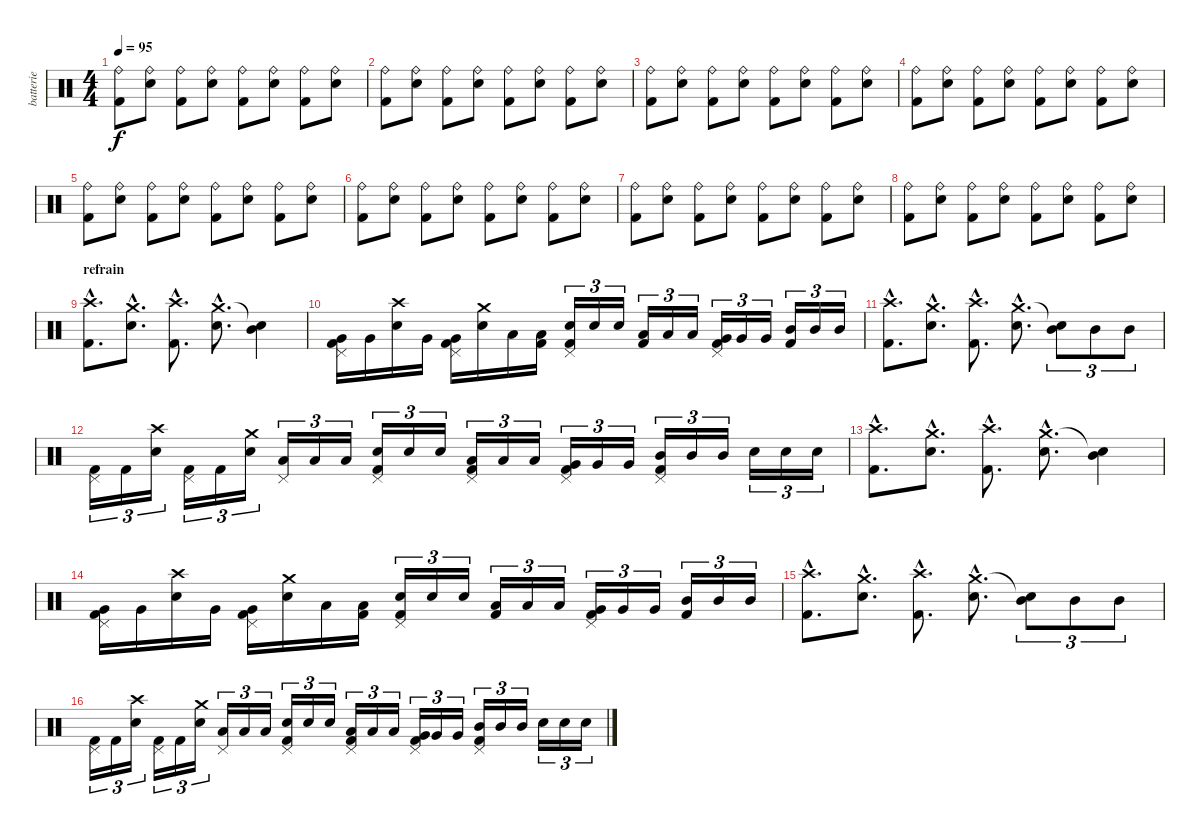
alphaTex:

\track ("batterie" "batterie") {instrument percussion}
\staff {score}
\articulation defaults
\ts (4 4)
\tempo 95
\clef neutral
\ks c
("Kick (hit) 2" "Ride (bell)").8{dy f} ("Electric Snare (hit)" "Ride (bell)").8 ("Kick (hit) 2" "Ride (bell)").8 ("Electric Snare (hit)" "Ride (bell)").8 ("Kick (hit) 2" "Ride (bell)").8 ("Electric Snare (hit)" "Ride (bell)").8 ("Kick (hit) 2" "Ride (bell)").8 ("Electric Snare (hit)" "Ride (bell)").8 |
("Kick (hit) 2" "Ride (bell)").8 ("Electric Snare (hit)" "Ride (bell)").8 ("Kick (hit) 2" "Ride (bell)").8 ("Electric Snare (hit)" "Ride (bell)").8 ("Kick (hit) 2" "Ride (bell)").8 ("Electric Snare (hit)" "Ride (bell)").8 ("Kick (hit) 2" "Ride (bell)").8 ("Electric Snare (hit)" "Ride (bell)").8 |
("Kick (hit) 2" "Ride (bell)").8 ("Electric Snare (hit)" "Ride (bell)").8 ("Kick (hit) 2" "Ride (bell)").8 ("Electric Snare (hit)" "Ride (bell)").8 ("Kick (hit) 2" "Ride (bell)").8 ("Electric Snare (hit)" "Ride (bell)").8 ("Kick (hit) 2" "Ride (bell)").8 ("Electric Snare (hit)" "Ride (bell)").8 |
("Kick (hit) 2" "Ride (bell)").8 ("Electric Snare (hit)" "Ride (bell)").8 ("Kick (hit) 2" "Ride (bell)").8 ("Electric Snare (hit)" "Ride (bell)").8 ("Kick (hit) 2" "Ride (bell)").8 ("Electric Snare (hit)" "Ride (bell)").8 ("Kick (hit) 2" "Ride (bell)").8 ("Electric Snare (hit)" "Ride (bell)").8 |
("Kick (hit) 2" "Ride (bell)").8 ("Electric Snare (hit)" "Ride (bell)").8 ("Kick (hit) 2" "Ride (bell)").8 ("Electric Snare (hit)" "Ride (bell)").8 ("Kick (hit) 2" "Ride (bell)").8 ("Electric Snare (hit)" "Ride (bell)").8 ("Kick (hit) 2" "Ride (bell)").8 ("Electric Snare (hit)" "Ride (bell)").8 |
("Kick (hit) 2" "Ride (bell)").8 ("Electric Snare (hit)" "Ride (bell)").8 ("Kick (hit) 2" "Ride (bell)").8 ("Electric Snare (hit)" "Ride (bell)").8 ("Kick (hit) 2" "Ride (bell)").8 ("Electric Snare (hit)" "Ride (bell)").8 ("Kick (hit) 2" "Ride (bell)").8 ("Electric Snare (hit)" "Ride (bell)").8 |
("Kick (hit) 2" "Ride (bell)").8 ("Electric Snare (hit)" "Ride (bell)").8 ("Kick (hit) 2" "Ride (bell)").8 ("Electric Snare (hit)" "Ride (bell)").8 ("Kick (hit) 2" "Ride (bell)").8 ("Electric Snare (hit)" "Ride (bell)").8 ("Kick (hit) 2" "Ride (bell)").8 ("Electric Snare (hit)" "Ride (bell)").8 |
("Kick (hit) 2" "Ride (bell)").8 ("Electric Snare (hit)" "Ride (bell)").8 ("Kick (hit) 2" "Ride (bell)").8 ("Electric Snare (hit)" "Ride (bell)").8 ("Kick (hit) 2" "Ride (bell)").8 ("Electric Snare (hit)" "Ride (bell)").8 ("Kick (hit) 2" "Ride (bell)").8 ("Electric Snare (hit)" "Ride (bell)").8 |
\section ("" "refrain")
("Crash high (hit)"{hac} "Kick (hit) 2"{hac}).8{d} ("Crash medium (hit)"{hac} "Electric Snare (hit)"{hac}).8{d} ("Crash high (hit)"{hac} "Kick (hit) 2"{hac}).8{d} ("Crash medium (hit)"{hac} "Electric Snare (hit)"{hac}).8{d} ("Snare (hit)"{t} "Mid Tom (hit)").4 |
("Very Low Tom (hit)" "Kick (hit) 2" "Pedal Hi-Hat (hit)").16 "Very Low Tom (hit)".16 ("Crash high (hit)" "Electric Snare (hit)").16 "Very Low Tom (hit)".16 ("Very Low Tom (hit)" "Kick (hit) 2" "Pedal Hi-Hat (hit)").16 ("Crash medium (hit)" "Electric Snare (hit)").16 "Low Tom (hit)".16 ("Low Tom (hit)" "Kick (hit) 2").16 ("Electric Snare (hit)" "Kick (hit) 2" "Pedal Hi-Hat (hit)").16{tu (3 2)} "Electric Snare (hit)".16{tu (3 2)} "Electric Snare (hit)".16{tu (3 2)} ("Low Tom (hit)" "Kick (hit) 2").16{tu (3 2)} "Low Tom (hit)".16{tu (3 2)} "Low Tom (hit)".16{tu (3 2)} ("Very Low Tom (hit)" "Kick (hit) 2" "Pedal Hi-Hat (hit)").16{tu (3 2)} "Very Low Tom (hit)".16{tu (3 2)} "Very Low Tom (hit)".16{tu (3 2)} ("Mid Tom (hit)" "Kick (hit) 2").16{tu (3 2)} "Mid Tom (hit)".16{tu (3 2)} "Mid Tom (hit)".16{tu (3 2)} |
("Crash high (hit)"{hac} "Kick (hit) 2"{hac}).8{d} ("Crash medium (hit)"{hac} "Electric Snare (hit)"{hac}).8{d} ("Crash high (hit)"{hac} "Kick (hit) 2"{hac}).8{d} ("Crash medium (hit)"{hac} "Electric Snare (hit)"{hac}).8{d} ("Snare (hit)"{t} "Mid Tom (hit)").8{tu (3 2)} "Mid Tom (hit)".8{tu (3 2)} "Mid Tom (hit)".8{tu (3 2)} |
("Kick (hit) 2" "Pedal Hi-Hat (hit)").16{tu (3 2)} "Kick (hit) 2".16{tu (3 2)} ("Crash high (hit)" "Electric Snare (hit)").16{tu (3 2)} ("Kick (hit) 2" "Pedal Hi-Hat (hit)").16{tu (3 2)} "Kick (hit) 2".16{tu (3 2)} ("Crash medium (hit)" "Electric Snare (hit)").16{tu (3 2)} ("Low Tom (hit)" "Pedal Hi-Hat (hit)").16{tu (3 2)} "Low Tom (hit)".16{tu (3 2)} "Low Tom (hit)".16{tu (3 2)} ("Electric Snare (hit)" "Kick (hit) 2" "Pedal Hi-Hat (hit)").16{tu (3 2)} "Electric Snare (hit)".16{tu (3 2)} "Electric Snare (hit)".16{tu (3 2)} ("Low Tom (hit)" "Kick (hit) 2" "Pedal Hi-Hat (hit)").16{tu (3 2)} "Low Tom (hit)".16{tu (3 2)} "Low Tom (hit)".16{tu (3 2)} ("Very Low Tom (hit)" "Kick (hit) 2" "Pedal Hi-Hat (hit)").16{tu (3 2)} "Very Low Tom (hit)".16{tu (3 2)} "Very Low Tom (hit)".16{tu (3 2)} ("Mid Tom (hit)" "Kick (hit) 2" "Pedal Hi-Hat (hit)").16{tu (3 2)} "Mid Tom (hit)".16{tu (3 2)} "Mid Tom (hit)".16{tu (3 2)} "Electric Snare (hit)".16{tu (3 2)} "Electric Snare (hit)".16{tu (3 2)} "Electric Snare (hit)".16{tu (3 2)} |
("Crash high (hit)"{hac} "Kick (hit) 2"{hac}).8{d} ("Crash medium (hit)"{hac} "Electric Snare (hit)"{hac}).8{d} ("Crash high (hit)"{hac} "Kick (hit) 2"{hac}).8{d} ("Crash medium (hit)"{hac} "Electric Snare (hit)"{hac}).8{d} ("Snare (hit)"{t} "Mid Tom (hit)").4 |
("Very Low Tom (hit)" "Kick (hit) 2" "Pedal Hi-Hat (hit)").16 "Very Low Tom (hit)".16 ("Crash high (hit)" "Electric Snare (hit)").16 "Very Low Tom (hit)".16 ("Very Low Tom (hit)" "Kick (hit) 2" "Pedal Hi-Hat (hit)").16 ("Crash medium (hit)" "Electric Snare (hit)").16 "Low Tom (hit)".16 ("Low Tom (hit)" "Kick (hit) 2").16 ("Electric Snare (hit)" "Kick (hit) 2" "Pedal Hi-Hat (hit)").16{tu (3 2)} "Electric Snare (hit)".16{tu (3 2)} "Electric Snare (hit)".16{tu (3 2)} ("Low Tom (hit)" "Kick (hit) 2").16{tu (3 2)} "Low Tom (hit)".16{tu (3 2)} "Low Tom (hit)".16{tu (3 2)} ("Very Low Tom (hit)" "Kick (hit) 2" "Pedal Hi-Hat (hit)").16{tu (3 2)} "Very Low Tom (hit)".16{tu (3 2)} "Very Low Tom (hit)".16{tu (3 2)} ("Mid Tom (hit)" "Kick (hit) 2").16{tu (3 2)} "Mid Tom (hit)".16{tu (3 2)} "Mid Tom (hit)".16{tu (3 2)} |
("Crash high (hit)"{hac} "Kick (hit) 2"{hac}).8{d} ("Crash medium (hit)"{hac} "Electric Snare (hit)"{hac}).8{d} ("Crash high (hit)"{hac} "Kick (hit) 2"{hac}).8{d} ("Crash medium (hit)"{hac} "Electric Snare (hit)"{hac}).8{d} ("Snare (hit)"{t} "Mid Tom (hit)").8{tu (3 2)} "Mid Tom (hit)".8{tu (3 2)} "Mid Tom (hit)".8{tu (3 2)} |
("Kick (hit) 2" "Pedal Hi-Hat (hit)").16{tu (3 2)} "Kick (hit) 2".16{tu (3 2)} ("Crash high (hit)" "Electric Snare (hit)").16{tu (3 2)} ("Kick (hit) 2" "Pedal Hi-Hat (hit)").16{tu (3 2)} "Kick (hit) 2".16{tu (3 2)} ("Crash medium (hit)" "Electric Snare (hit)").16{tu (3 2)} ("Low Tom (hit)" "Pedal Hi-Hat (hit)").16{tu (3 2)} "Low Tom (hit)".16{tu (3 2)} "Low Tom (hit)".16{tu (3 2)} ("Electric Snare (hit)" "Kick (hit) 2" "Pedal Hi-Hat (hit)").16{tu (3 2)} "Electric Snare (hit)".16{tu (3 2)} "Electric Snare (hit)".16{tu (3 2)} ("Low Tom (hit)" "Kick (hit) 2" "Pedal Hi-Hat (hit)").16{tu (3 2)} "Low Tom (hit)".16{tu (3 2)} "Low Tom (hit)".16{tu (3 2)} ("Very Low Tom (hit)" "Kick (hit) 2" "Pedal Hi-Hat (hit)").16{tu (3 2)} "Very Low Tom (hit)".16{tu (3 2)} "Very Low Tom (hit)".16{tu (3 2)} ("Mid Tom (hit)" "Kick (hit) 2" "Pedal Hi-Hat (hit)").16{tu (3 2)} "Mid Tom (hit)".16{tu (3 2)} "Mid Tom (hit)".16{tu (3 2)} "Electric Snare (hit)".16{tu (3 2)} "Electric Snare (hit)".16{tu (3 2)} "Electric Snare (hit)".16{tu (3 2)}
